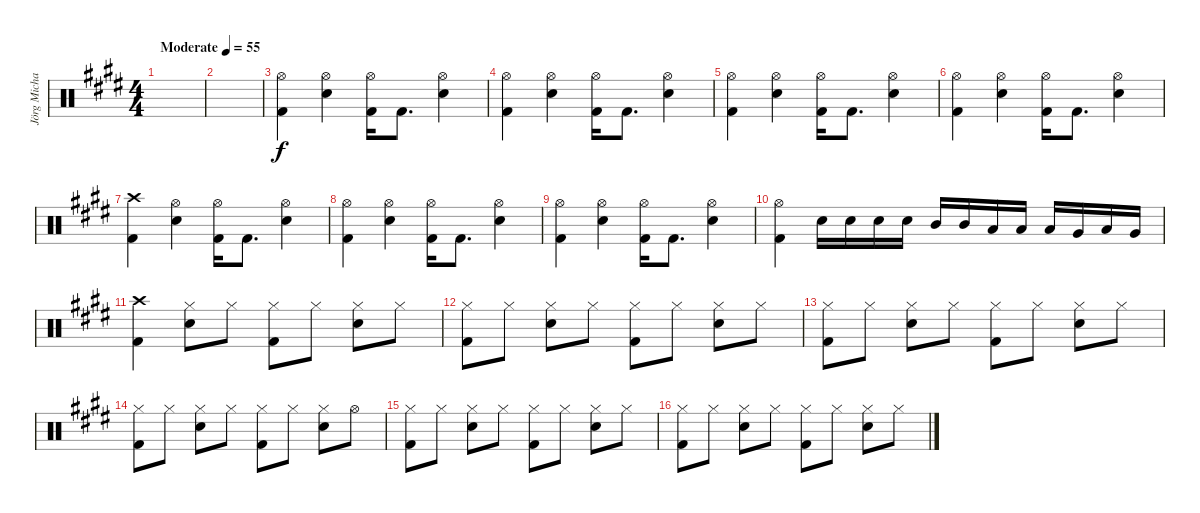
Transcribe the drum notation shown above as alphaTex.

\track ("Jörg Michael" "Jörg Micha") {instrument percussion}
\staff {score}
\articulation defaults
\ts (4 4)
\tempo (55 "Moderate")
\clef neutral
\ks e
|
|
("Hi-Hat (open)" "Kick (hit) 2").4 ("Hi-Hat (open)" "Electric Snare (hit)").4 ("Hi-Hat (open)" "Kick (hit) 2").16 "Kick (hit) 2".8{d} ("Hi-Hat (open)" "Electric Snare (hit)").4 |
("Hi-Hat (open)" "Kick (hit) 2").4 ("Hi-Hat (open)" "Electric Snare (hit)").4 ("Hi-Hat (open)" "Kick (hit) 2").16 "Kick (hit) 2".8{d} ("Hi-Hat (open)" "Electric Snare (hit)").4 |
("Hi-Hat (open)" "Kick (hit) 2").4 ("Hi-Hat (open)" "Electric Snare (hit)").4 ("Hi-Hat (open)" "Kick (hit) 2").16 "Kick (hit) 2".8{d} ("Hi-Hat (open)" "Electric Snare (hit)").4 |
("Hi-Hat (open)" "Kick (hit) 2").4 ("Hi-Hat (open)" "Electric Snare (hit)").4 ("Hi-Hat (open)" "Kick (hit) 2").16 "Kick (hit) 2".8{d} ("Hi-Hat (open)" "Electric Snare (hit)").4 |
("Crash high (hit)" "Kick (hit) 2").4{volume 13} ("Hi-Hat (open)" "Electric Snare (hit)").4 ("Hi-Hat (open)" "Kick (hit) 2").16 "Kick (hit) 2".8{d} ("Hi-Hat (open)" "Electric Snare (hit)").4 |
("Hi-Hat (open)" "Kick (hit) 2").4 ("Hi-Hat (open)" "Electric Snare (hit)").4 ("Hi-Hat (open)" "Kick (hit) 2").16 "Kick (hit) 2".8{d} ("Hi-Hat (open)" "Electric Snare (hit)").4 |
("Hi-Hat (open)" "Kick (hit) 2").4 ("Hi-Hat (open)" "Electric Snare (hit)").4 ("Hi-Hat (open)" "Kick (hit) 2").16 "Kick (hit) 2".8{d} ("Hi-Hat (open)" "Electric Snare (hit)").4 |
("Hi-Hat (open)" "Kick (hit) 2").4 "Electric Snare (hit)".16 "Electric Snare (hit)".16 "Electric Snare (hit)".16 "Electric Snare (hit)".16 "Mid Tom (hit)".16 "Mid Tom (hit)".16 "Low Tom (hit)".16 "Low Tom (hit)".16 "Low Tom (hit)".16 "Very Low Tom (hit)".16 "Low Tom (hit)".16 "Very Low Tom (hit)".16 |
("Crash high (hit)" "Kick (hit) 2").4 ("Electric Snare (hit)" "Hi-Hat (closed)").8 "Hi-Hat (closed)".8 ("Kick (hit) 2" "Hi-Hat (closed)").8 "Hi-Hat (closed)".8 ("Electric Snare (hit)" "Hi-Hat (closed)").8 "Hi-Hat (closed)".8 |
("Hi-Hat (closed)" "Kick (hit) 2").8 "Hi-Hat (closed)".8 ("Hi-Hat (closed)" "Electric Snare (hit)").8 "Hi-Hat (closed)".8 ("Hi-Hat (closed)" "Kick (hit) 2").8 "Hi-Hat (closed)".8 ("Hi-Hat (closed)" "Electric Snare (hit)").8 "Hi-Hat (closed)".8 |
("Hi-Hat (closed)" "Kick (hit) 2").8 "Hi-Hat (closed)".8 ("Hi-Hat (closed)" "Electric Snare (hit)").8 "Hi-Hat (closed)".8 ("Hi-Hat (closed)" "Kick (hit) 2").8 "Hi-Hat (closed)".8 ("Hi-Hat (closed)" "Electric Snare (hit)").8 "Hi-Hat (closed)".8 |
("Hi-Hat (closed)" "Kick (hit) 2").8 "Hi-Hat (closed)".8 ("Hi-Hat (closed)" "Electric Snare (hit)").8 "Hi-Hat (closed)".8 ("Hi-Hat (closed)" "Kick (hit) 2").8 "Hi-Hat (closed)".8 ("Hi-Hat (closed)" "Electric Snare (hit)").8 "Hi-Hat (open)".8 |
("Hi-Hat (closed)" "Kick (hit) 2").8 "Hi-Hat (closed)".8 ("Hi-Hat (closed)" "Electric Snare (hit)").8 "Hi-Hat (closed)".8 ("Hi-Hat (closed)" "Kick (hit) 2").8 "Hi-Hat (closed)".8 ("Hi-Hat (closed)" "Electric Snare (hit)").8 "Hi-Hat (closed)".8 |
("Hi-Hat (closed)" "Kick (hit) 2").8 "Hi-Hat (closed)".8 ("Hi-Hat (closed)" "Electric Snare (hit)").8 "Hi-Hat (closed)".8 ("Hi-Hat (closed)" "Kick (hit) 2").8 "Hi-Hat (closed)".8 ("Hi-Hat (closed)" "Electric Snare (hit)").8 "Hi-Hat (closed)".8
